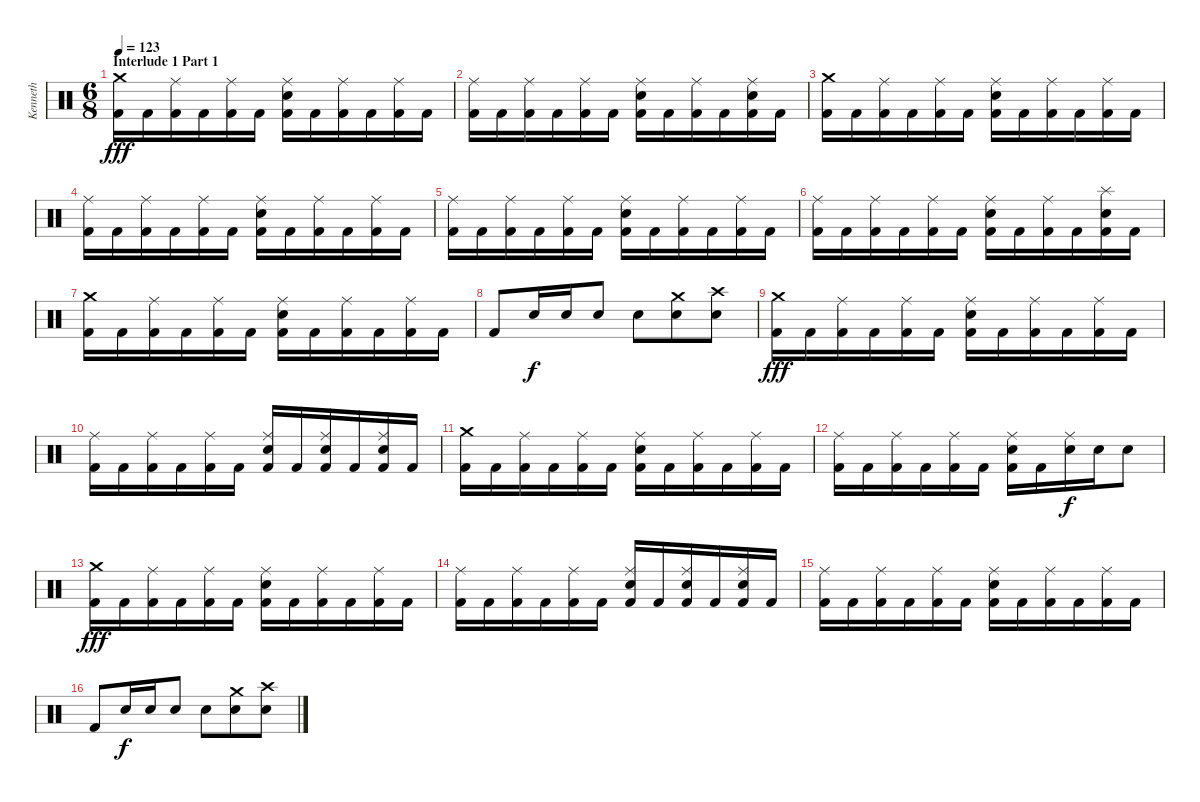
\track ("Kenneth" "Kenneth") {instrument percussion}
\staff {score}
\articulation defaults
\ts (6 8)
\section ("" "Interlude 1 Part 1")
\tempo 123
\clef neutral
\ks c
("Crash medium (hit)" "Kick (hit) 2").16{dy fff} "Kick (hit) 2".16 ("Ride (middle)" "Kick (hit) 2").16 "Kick (hit) 2".16 ("Ride (middle)" "Kick (hit) 2").16 "Kick (hit) 2".16 ("Ride (middle)" "Snare (hit) 2" "Kick (hit) 2").16 "Kick (hit) 2".16 ("Ride (middle)" "Kick (hit) 2").16 "Kick (hit) 2".16 ("Ride (middle)" "Kick (hit) 2").16 "Kick (hit) 2".16 |
("Ride (middle)" "Kick (hit) 2").16 "Kick (hit) 2".16 ("Ride (middle)" "Kick (hit) 2").16 "Kick (hit) 2".16 ("Ride (middle)" "Kick (hit) 2").16 "Kick (hit) 2".16 ("Ride (middle)" "Snare (hit) 2" "Kick (hit) 2").16 "Kick (hit) 2".16 ("Ride (middle)" "Kick (hit) 2").16 "Kick (hit) 2".16 ("Ride (middle)" "Snare (hit) 2" "Kick (hit) 2").16 "Kick (hit) 2".16 |
("Crash medium (hit)" "Kick (hit) 2").16 "Kick (hit) 2".16 ("Ride (middle)" "Kick (hit) 2").16 "Kick (hit) 2".16 ("Ride (middle)" "Kick (hit) 2").16 "Kick (hit) 2".16 ("Ride (middle)" "Snare (hit) 2" "Kick (hit) 2").16 "Kick (hit) 2".16 ("Ride (middle)" "Kick (hit) 2").16 "Kick (hit) 2".16 ("Ride (middle)" "Kick (hit) 2").16 "Kick (hit) 2".16 |
("Ride (middle)" "Kick (hit) 2").16 "Kick (hit) 2".16 ("Ride (middle)" "Kick (hit) 2").16 "Kick (hit) 2".16 ("Ride (middle)" "Kick (hit) 2").16 "Kick (hit) 2".16 ("Ride (middle)" "Snare (hit) 2" "Kick (hit) 2").16 "Kick (hit) 2".16 ("Ride (middle)" "Kick (hit) 2").16 "Kick (hit) 2".16 ("Ride (middle)" "Kick (hit) 2").16 "Kick (hit) 2".16 |
("Ride (middle)" "Kick (hit) 2").16 "Kick (hit) 2".16 ("Ride (middle)" "Kick (hit) 2").16 "Kick (hit) 2".16 ("Ride (middle)" "Kick (hit) 2").16 "Kick (hit) 2".16 ("Ride (middle)" "Snare (hit) 2" "Kick (hit) 2").16 "Kick (hit) 2".16 ("Ride (middle)" "Kick (hit) 2").16 "Kick (hit) 2".16 ("Ride (middle)" "Kick (hit) 2").16 "Kick (hit) 2".16 |
("Ride (middle)" "Kick (hit) 2").16 "Kick (hit) 2".16 ("Ride (middle)" "Kick (hit) 2").16 "Kick (hit) 2".16 ("Ride (middle)" "Kick (hit) 2").16 "Kick (hit) 2".16 ("Ride (middle)" "Snare (hit) 2" "Kick (hit) 2").16 "Kick (hit) 2".16 ("Ride (middle)" "Kick (hit) 2").16 "Kick (hit) 2".16 ("Splash (hit)" "Snare (hit) 2" "Kick (hit) 2").16 "Kick (hit) 2".16 |
("Crash medium (hit)" "Kick (hit) 2").16 "Kick (hit) 2".16 ("Ride (middle)" "Kick (hit) 2").16 "Kick (hit) 2".16 ("Ride (middle)" "Kick (hit) 2").16 "Kick (hit) 2".16 ("Ride (middle)" "Snare (hit) 2" "Kick (hit) 2").16 "Kick (hit) 2".16 ("Ride (middle)" "Kick (hit) 2").16 "Kick (hit) 2".16 ("Ride (middle)" "Kick (hit) 2").16 "Kick (hit) 2".16 |
"Kick (hit) 2".8 "Snare (hit) 2".16{dy f} "Snare (hit) 2".16 "Snare (hit) 2".8 "Snare (hit) 2".8 ("Crash medium (hit)" "Snare (hit) 2").8 ("Crash high (hit)" "Snare (hit) 2").8 |
("Crash medium (hit)" "Kick (hit) 2").16{dy fff} "Kick (hit) 2".16 ("Ride (middle)" "Kick (hit) 2").16 "Kick (hit) 2".16 ("Ride (middle)" "Kick (hit) 2").16 "Kick (hit) 2".16 ("Ride (middle)" "Snare (hit) 2" "Kick (hit) 2").16 "Kick (hit) 2".16 ("Ride (middle)" "Kick (hit) 2").16 "Kick (hit) 2".16 ("Ride (middle)" "Kick (hit) 2").16 "Kick (hit) 2".16 |
("Ride (middle)" "Kick (hit) 2").16 "Kick (hit) 2".16 ("Ride (middle)" "Kick (hit) 2").16 "Kick (hit) 2".16 ("Ride (middle)" "Kick (hit) 2").16 "Kick (hit) 2".16 ("Ride (middle)" "Snare (hit) 2" "Kick (hit) 2").16 "Kick (hit) 2".16 ("Ride (middle)" "Snare (hit) 2" "Kick (hit) 2").16 "Kick (hit) 2".16 ("Ride (middle)" "Snare (hit) 2" "Kick (hit) 2").16 "Kick (hit) 2".16 |
("Crash medium (hit)" "Kick (hit) 2").16 "Kick (hit) 2".16 ("Ride (middle)" "Kick (hit) 2").16 "Kick (hit) 2".16 ("Ride (middle)" "Kick (hit) 2").16 "Kick (hit) 2".16 ("Ride (middle)" "Snare (hit) 2" "Kick (hit) 2").16 "Kick (hit) 2".16 ("Ride (middle)" "Kick (hit) 2").16 "Kick (hit) 2".16 ("Ride (middle)" "Kick (hit) 2").16 "Kick (hit) 2".16 |
("Ride (middle)" "Kick (hit) 2").16 "Kick (hit) 2".16 ("Ride (middle)" "Kick (hit) 2").16 "Kick (hit) 2".16 ("Ride (middle)" "Kick (hit) 2").16 "Kick (hit) 2".16 ("Ride (middle)" "Snare (hit) 2" "Kick (hit) 2").16 "Kick (hit) 2".16 ("Ride (middle)" "Snare (hit) 2").16{dy f} "Snare (hit) 2".16 "Snare (hit) 2".8 |
("Crash medium (hit)" "Kick (hit) 2").16{dy fff} "Kick (hit) 2".16 ("Ride (middle)" "Kick (hit) 2").16 "Kick (hit) 2".16 ("Ride (middle)" "Kick (hit) 2").16 "Kick (hit) 2".16 ("Ride (middle)" "Snare (hit) 2" "Kick (hit) 2").16 "Kick (hit) 2".16 ("Ride (middle)" "Kick (hit) 2").16 "Kick (hit) 2".16 ("Ride (middle)" "Kick (hit) 2").16 "Kick (hit) 2".16 |
("Ride (middle)" "Kick (hit) 2").16 "Kick (hit) 2".16 ("Ride (middle)" "Kick (hit) 2").16 "Kick (hit) 2".16 ("Ride (middle)" "Kick (hit) 2").16 "Kick (hit) 2".16 ("Ride (middle)" "Snare (hit) 2" "Kick (hit) 2").16 "Kick (hit) 2".16 ("Ride (middle)" "Snare (hit) 2" "Kick (hit) 2").16 "Kick (hit) 2".16 ("Ride (middle)" "Snare (hit) 2" "Kick (hit) 2").16 "Kick (hit) 2".16 |
("Ride (middle)" "Kick (hit) 2").16 "Kick (hit) 2".16 ("Ride (middle)" "Kick (hit) 2").16 "Kick (hit) 2".16 ("Ride (middle)" "Kick (hit) 2").16 "Kick (hit) 2".16 ("Ride (middle)" "Snare (hit) 2" "Kick (hit) 2").16 "Kick (hit) 2".16 ("Ride (middle)" "Kick (hit) 2").16 "Kick (hit) 2".16 ("Ride (middle)" "Kick (hit) 2").16 "Kick (hit) 2".16 |
"Kick (hit) 2".8 "Snare (hit) 2".16{dy f} "Snare (hit) 2".16 "Snare (hit) 2".8 "Snare (hit) 2".8 ("Crash medium (hit)" "Snare (hit) 2").8 ("Crash high (hit)" "Snare (hit) 2").8
